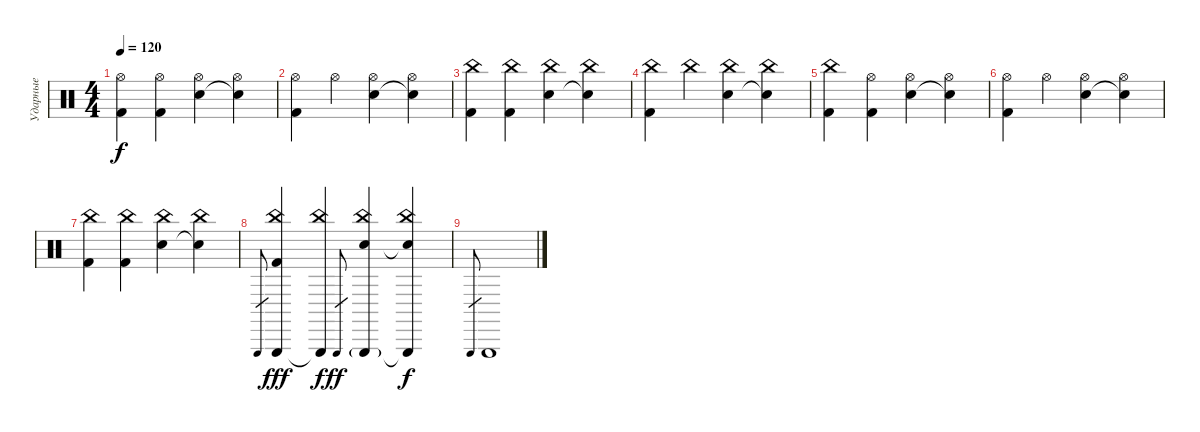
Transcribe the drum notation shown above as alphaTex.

\track ("Ударные" "Ударные") {instrument percussion}
\staff {score}
\articulation defaults
\ts (4 4)
\tempo 120
\clef neutral
\ks c
("Hi-Hat (open)" "Kick (hit) 2").4{dy f} ("Hi-Hat (open)" "Kick (hit) 2").4 ("Hi-Hat (open)" "Electric Snare (hit)").4 ("Hi-Hat (open)" "Snare (hit)"{t}).4 |
("Hi-Hat (open)" "Kick (hit) 2").4 "Hi-Hat (open)".4 ("Hi-Hat (open)" "Electric Snare (hit)").4 ("Hi-Hat (open)" "Snare (hit)"{t}).4 |
("China (hit)" "Kick (hit) 2").4 ("China (hit)" "Kick (hit) 2").4 ("China (hit)" "Electric Snare (hit)").4 ("China (hit)" "Snare (hit)"{t}).4 |
("China (hit)" "Kick (hit) 2").4 "China (hit)".4 ("China (hit)" "Electric Snare (hit)").4 ("China (hit)" "Snare (hit)"{t}).4 |
("China (hit)" "Kick (hit) 2").4 ("Hi-Hat (open)" "Kick (hit) 2").4 ("Hi-Hat (open)" "Electric Snare (hit)").4 ("Hi-Hat (open)" "Snare (hit)"{t}).4 |
("Hi-Hat (open)" "Kick (hit) 2").4 "Hi-Hat (open)".4 ("Hi-Hat (open)" "Electric Snare (hit)").4 ("Hi-Hat (open)" "Snare (hit)"{t}).4 |
("China (hit)" "Kick (hit) 2").4 ("China (hit)" "Kick (hit) 2").4 ("China (hit)" "Electric Snare (hit)").4 ("China (hit)" "Snare (hit)"{t}).4 |
"Triangle (hit)".8{gr} ("China (hit)" "Triangle (hit)" "Kick (hit) 2").4{dy fff} ("China (hit)" "Triangle (hit)"{t}).4{dy f} "Triangle (hit)".8{gr dy ff} ("China (hit)" "Triangle (hit)"{g} "Electric Snare (hit)").4 ("China (hit)" "Triangle (hit)"{t} "Snare (hit)"{t}).4{dy f} |
"Triangle (hit)".8{gr} "Triangle (hit)".1
